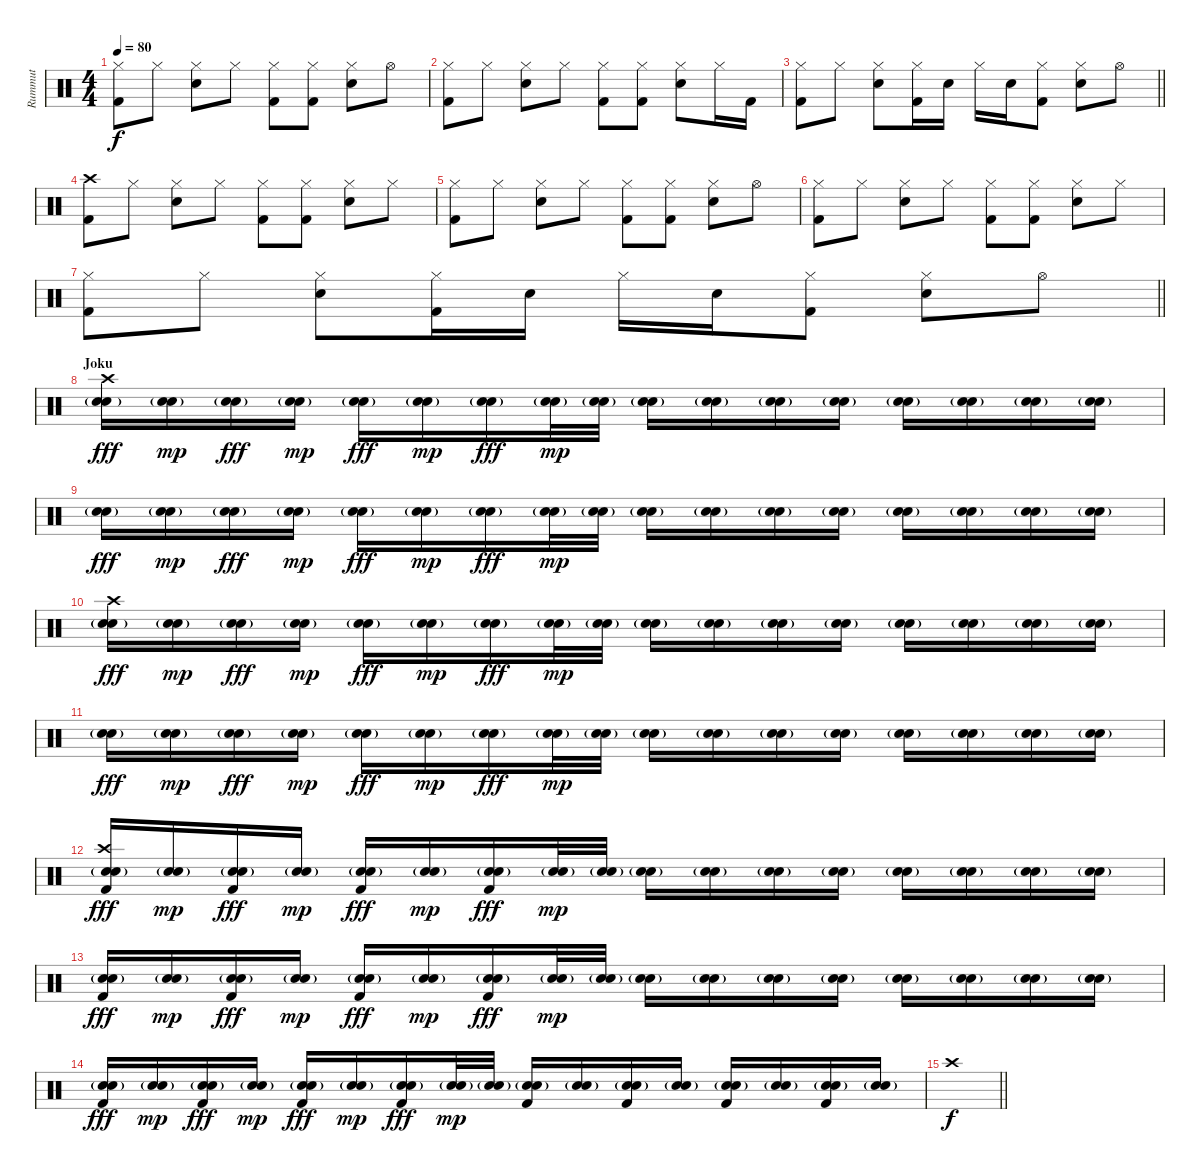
\track ("Rummut" "Rummut") {instrument percussion}
\staff {score}
\articulation defaults
\ts (4 4)
\tempo 80
\clef neutral
\ks c
("Hi-Hat (closed)" "Kick (hit) 2").8{dy f} "Hi-Hat (closed)".8 ("Hi-Hat (closed)" "Snare (hit) 2").8 "Hi-Hat (closed)".8 ("Hi-Hat (closed)" "Kick (hit) 2").8 ("Hi-Hat (closed)" "Kick (hit) 2").8 ("Hi-Hat (closed)" "Snare (hit) 2").8 "Hi-Hat (open)".8 |
("Hi-Hat (closed)" "Kick (hit) 2").8 "Hi-Hat (closed)".8 ("Hi-Hat (closed)" "Snare (hit) 2").8 "Hi-Hat (closed)".8 ("Hi-Hat (closed)" "Kick (hit) 2").8 ("Hi-Hat (closed)" "Kick (hit) 2").8 ("Hi-Hat (closed)" "Snare (hit) 2").8 "Hi-Hat (closed)".16 "Kick (hit) 2".16 |
\barLineRight lightlight
("Hi-Hat (closed)" "Kick (hit) 2").8 "Hi-Hat (closed)".8 ("Hi-Hat (closed)" "Snare (hit) 2").8 ("Hi-Hat (closed)" "Kick (hit) 2").16 "Snare (hit) 2".16 "Hi-Hat (closed)".16 "Snare (hit) 2".16 ("Hi-Hat (closed)" "Kick (hit) 2").8 ("Hi-Hat (closed)" "Snare (hit) 2").8 "Hi-Hat (open)".8 |
("Crash high (hit)" "Kick (hit) 2").8 "Hi-Hat (closed)".8 ("Hi-Hat (closed)" "Snare (hit) 2").8 "Hi-Hat (closed)".8 ("Hi-Hat (closed)" "Kick (hit) 2").8 ("Hi-Hat (closed)" "Kick (hit) 2").8 ("Hi-Hat (closed)" "Snare (hit) 2").8 "Hi-Hat (closed)".8 |
("Hi-Hat (closed)" "Kick (hit) 2").8 "Hi-Hat (closed)".8 ("Hi-Hat (closed)" "Snare (hit) 2").8 "Hi-Hat (closed)".8 ("Hi-Hat (closed)" "Kick (hit) 2").8 ("Hi-Hat (closed)" "Kick (hit) 2").8 ("Hi-Hat (closed)" "Snare (hit) 2").8 "Hi-Hat (open)".8 |
("Hi-Hat (closed)" "Kick (hit) 2").8 "Hi-Hat (closed)".8 ("Hi-Hat (closed)" "Snare (hit) 2").8 "Hi-Hat (closed)".8 ("Hi-Hat (closed)" "Kick (hit) 2").8 ("Hi-Hat (closed)" "Kick (hit) 2").8 ("Hi-Hat (closed)" "Snare (hit) 2").8 "Hi-Hat (closed)".8 |
\barLineRight lightlight
("Hi-Hat (closed)" "Kick (hit) 2").8 "Hi-Hat (closed)".8 ("Hi-Hat (closed)" "Snare (hit) 2").8 ("Hi-Hat (closed)" "Kick (hit) 2").16 "Snare (hit) 2".16 "Hi-Hat (closed)".16 "Snare (hit) 2".16 ("Hi-Hat (closed)" "Kick (hit) 2").8 ("Hi-Hat (closed)" "Snare (hit) 2").8 "Hi-Hat (open)".8 |
\section ("" "Joku")
("Crash high (hit)" "Snare (hit) 2"{g} "Electric Snare (hit)").16{dy fff volume 10} ("Snare (hit) 2"{g} "Electric Snare (hit)").16{dy mp} ("Snare (hit) 2"{g} "Electric Snare (hit)").16{dy fff} ("Snare (hit) 2"{g} "Electric Snare (hit)").16{dy mp} ("Snare (hit) 2"{g} "Electric Snare (hit)").16{dy fff} ("Snare (hit) 2"{g} "Electric Snare (hit)").16{dy mp} ("Snare (hit) 2"{g} "Electric Snare (hit)").16{dy fff} ("Snare (hit) 2"{g} "Electric Snare (hit)").32{dy mp} ("Snare (hit) 2"{g} "Electric Snare (hit)").32 ("Snare (hit) 2"{g} "Electric Snare (hit)").16 ("Snare (hit) 2"{g} "Electric Snare (hit)").16 ("Snare (hit) 2"{g} "Electric Snare (hit)").16 ("Snare (hit) 2"{g} "Electric Snare (hit)").16 ("Snare (hit) 2"{g} "Electric Snare (hit)").16 ("Snare (hit) 2"{g} "Electric Snare (hit)").16 ("Snare (hit) 2"{g} "Electric Snare (hit)").16 ("Snare (hit) 2"{g} "Electric Snare (hit)").16 |
("Snare (hit) 2"{g} "Electric Snare (hit)").16{dy fff} ("Snare (hit) 2"{g} "Electric Snare (hit)").16{dy mp} ("Snare (hit) 2"{g} "Electric Snare (hit)").16{dy fff} ("Snare (hit) 2"{g} "Electric Snare (hit)").16{dy mp} ("Snare (hit) 2"{g} "Electric Snare (hit)").16{dy fff} ("Snare (hit) 2"{g} "Electric Snare (hit)").16{dy mp} ("Snare (hit) 2"{g} "Electric Snare (hit)").16{dy fff} ("Snare (hit) 2"{g} "Electric Snare (hit)").32{dy mp} ("Snare (hit) 2"{g} "Electric Snare (hit)").32 ("Snare (hit) 2"{g} "Electric Snare (hit)").16 ("Snare (hit) 2"{g} "Electric Snare (hit)").16 ("Snare (hit) 2"{g} "Electric Snare (hit)").16 ("Snare (hit) 2"{g} "Electric Snare (hit)").16 ("Snare (hit) 2"{g} "Electric Snare (hit)").16 ("Snare (hit) 2"{g} "Electric Snare (hit)").16 ("Snare (hit) 2"{g} "Electric Snare (hit)").16 ("Snare (hit) 2"{g} "Electric Snare (hit)").16 |
("Crash high (hit)" "Snare (hit) 2"{g} "Electric Snare (hit)").16{dy fff} ("Snare (hit) 2"{g} "Electric Snare (hit)").16{dy mp} ("Snare (hit) 2"{g} "Electric Snare (hit)").16{dy fff} ("Snare (hit) 2"{g} "Electric Snare (hit)").16{dy mp} ("Snare (hit) 2"{g} "Electric Snare (hit)").16{dy fff} ("Snare (hit) 2"{g} "Electric Snare (hit)").16{dy mp} ("Snare (hit) 2"{g} "Electric Snare (hit)").16{dy fff} ("Snare (hit) 2"{g} "Electric Snare (hit)").32{dy mp} ("Snare (hit) 2"{g} "Electric Snare (hit)").32 ("Snare (hit) 2"{g} "Electric Snare (hit)").16 ("Snare (hit) 2"{g} "Electric Snare (hit)").16 ("Snare (hit) 2"{g} "Electric Snare (hit)").16 ("Snare (hit) 2"{g} "Electric Snare (hit)").16 ("Snare (hit) 2"{g} "Electric Snare (hit)").16 ("Snare (hit) 2"{g} "Electric Snare (hit)").16 ("Snare (hit) 2"{g} "Electric Snare (hit)").16 ("Snare (hit) 2"{g} "Electric Snare (hit)").16 |
("Snare (hit) 2"{g} "Electric Snare (hit)").16{dy fff} ("Snare (hit) 2"{g} "Electric Snare (hit)").16{dy mp} ("Snare (hit) 2"{g} "Electric Snare (hit)").16{dy fff} ("Snare (hit) 2"{g} "Electric Snare (hit)").16{dy mp} ("Snare (hit) 2"{g} "Electric Snare (hit)").16{dy fff} ("Snare (hit) 2"{g} "Electric Snare (hit)").16{dy mp} ("Snare (hit) 2"{g} "Electric Snare (hit)").16{dy fff} ("Snare (hit) 2"{g} "Electric Snare (hit)").32{dy mp} ("Snare (hit) 2"{g} "Electric Snare (hit)").32 ("Snare (hit) 2"{g} "Electric Snare (hit)").16 ("Snare (hit) 2"{g} "Electric Snare (hit)").16 ("Snare (hit) 2"{g} "Electric Snare (hit)").16 ("Snare (hit) 2"{g} "Electric Snare (hit)").16 ("Snare (hit) 2"{g} "Electric Snare (hit)").16 ("Snare (hit) 2"{g} "Electric Snare (hit)").16 ("Snare (hit) 2"{g} "Electric Snare (hit)").16 ("Snare (hit) 2"{g} "Electric Snare (hit)").16 |
("Crash high (hit)" "Kick (hit) 2" "Snare (hit) 2"{g} "Electric Snare (hit)").16{dy fff} ("Snare (hit) 2"{g} "Electric Snare (hit)").16{dy mp} ("Kick (hit) 2" "Snare (hit) 2"{g} "Electric Snare (hit)").16{dy fff} ("Snare (hit) 2"{g} "Electric Snare (hit)").16{dy mp} ("Kick (hit) 2" "Snare (hit) 2"{g} "Electric Snare (hit)").16{dy fff} ("Snare (hit) 2"{g} "Electric Snare (hit)").16{dy mp} ("Kick (hit) 2" "Snare (hit) 2"{g} "Electric Snare (hit)").16{dy fff} ("Snare (hit) 2"{g} "Electric Snare (hit)").32{dy mp} ("Snare (hit) 2"{g} "Electric Snare (hit)").32 ("Snare (hit) 2"{g} "Electric Snare (hit)").16 ("Snare (hit) 2"{g} "Electric Snare (hit)").16 ("Snare (hit) 2"{g} "Electric Snare (hit)").16 ("Snare (hit) 2"{g} "Electric Snare (hit)").16 ("Snare (hit) 2"{g} "Electric Snare (hit)").16 ("Snare (hit) 2"{g} "Electric Snare (hit)").16 ("Snare (hit) 2"{g} "Electric Snare (hit)").16 ("Snare (hit) 2"{g} "Electric Snare (hit)").16 |
("Kick (hit) 2" "Snare (hit) 2"{g} "Electric Snare (hit)").16{dy fff} ("Snare (hit) 2"{g} "Electric Snare (hit)").16{dy mp} ("Kick (hit) 2" "Snare (hit) 2"{g} "Electric Snare (hit)").16{dy fff} ("Snare (hit) 2"{g} "Electric Snare (hit)").16{dy mp} ("Kick (hit) 2" "Snare (hit) 2"{g} "Electric Snare (hit)").16{dy fff} ("Snare (hit) 2"{g} "Electric Snare (hit)").16{dy mp} ("Kick (hit) 2" "Snare (hit) 2"{g} "Electric Snare (hit)").16{dy fff} ("Snare (hit) 2"{g} "Electric Snare (hit)").32{dy mp} ("Snare (hit) 2"{g} "Electric Snare (hit)").32 ("Snare (hit) 2"{g} "Electric Snare (hit)").16 ("Snare (hit) 2"{g} "Electric Snare (hit)").16 ("Snare (hit) 2"{g} "Electric Snare (hit)").16 ("Snare (hit) 2"{g} "Electric Snare (hit)").16 ("Snare (hit) 2"{g} "Electric Snare (hit)").16 ("Snare (hit) 2"{g} "Electric Snare (hit)").16 ("Snare (hit) 2"{g} "Electric Snare (hit)").16 ("Snare (hit) 2"{g} "Electric Snare (hit)").16 |
("Kick (hit) 2" "Snare (hit) 2"{g} "Electric Snare (hit)").16{dy fff volume 16} ("Snare (hit) 2"{g} "Electric Snare (hit)").16{dy mp} ("Kick (hit) 2" "Snare (hit) 2"{g} "Electric Snare (hit)").16{dy fff} ("Snare (hit) 2"{g} "Electric Snare (hit)").16{dy mp} ("Kick (hit) 2" "Snare (hit) 2"{g} "Electric Snare (hit)").16{dy fff} ("Snare (hit) 2"{g} "Electric Snare (hit)").16{dy mp} ("Kick (hit) 2" "Snare (hit) 2"{g} "Electric Snare (hit)").16{dy fff} ("Snare (hit) 2"{g} "Electric Snare (hit)").32{dy mp} ("Snare (hit) 2"{g} "Electric Snare (hit)").32 ("Kick (hit) 2" "Snare (hit) 2"{g} "Electric Snare (hit)").16 ("Snare (hit) 2"{g} "Electric Snare (hit)").16 ("Kick (hit) 2" "Snare (hit) 2"{g} "Electric Snare (hit)").16 ("Snare (hit) 2"{g} "Electric Snare (hit)").16 ("Kick (hit) 2" "Snare (hit) 2"{g} "Electric Snare (hit)").16 ("Snare (hit) 2"{g} "Electric Snare (hit)").16 ("Kick (hit) 2" "Snare (hit) 2"{g} "Electric Snare (hit)").16 ("Snare (hit) 2"{g} "Electric Snare (hit)").16 |
\barLineRight lightlight "Crash high (hit)".1{dy f}
